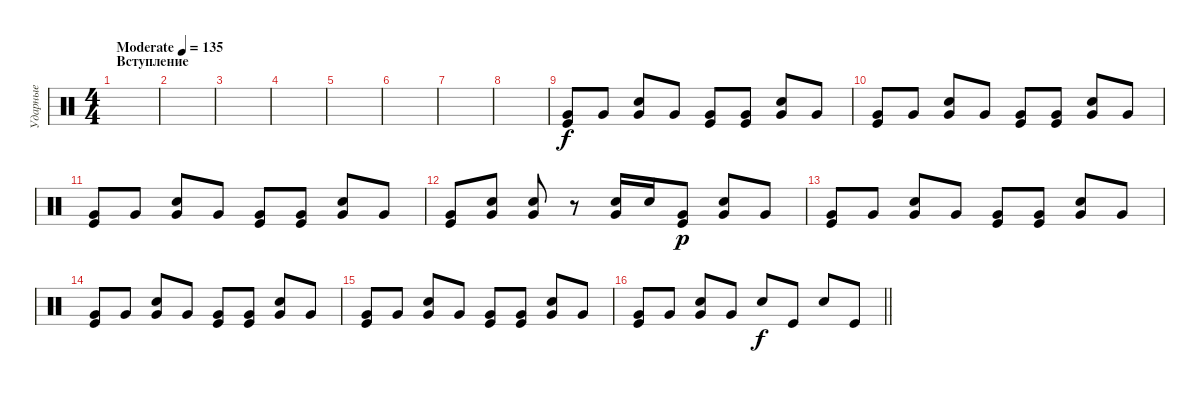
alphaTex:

\track ("Ударные" "Ударные") {instrument percussion}
\staff {score}
\articulation defaults
\ts (4 4)
\section ("" "Вступление")
\tempo (135 "Moderate")
\clef neutral
\ks c
|
|
|
|
|
|
|
|
("Kick (hit)" "Very Low Tom (hit)").8 "Very Low Tom (hit)".8 ("Electric Snare (hit)" "Very Low Tom (hit)").8 "Very Low Tom (hit)".8 ("Kick (hit)" "Very Low Tom (hit)").8 ("Kick (hit)" "Very Low Tom (hit)").8 ("Electric Snare (hit)" "Very Low Tom (hit)").8 "Very Low Tom (hit)".8 |
("Kick (hit)" "Very Low Tom (hit)").8 "Very Low Tom (hit)".8 ("Electric Snare (hit)" "Very Low Tom (hit)").8 "Very Low Tom (hit)".8 ("Kick (hit)" "Very Low Tom (hit)").8 ("Kick (hit)" "Very Low Tom (hit)").8 ("Electric Snare (hit)" "Very Low Tom (hit)").8 "Very Low Tom (hit)".8 |
("Kick (hit)" "Very Low Tom (hit)").8 "Very Low Tom (hit)".8 ("Electric Snare (hit)" "Very Low Tom (hit)").8 "Very Low Tom (hit)".8 ("Kick (hit)" "Very Low Tom (hit)").8 ("Kick (hit)" "Very Low Tom (hit)").8 ("Electric Snare (hit)" "Very Low Tom (hit)").8 "Very Low Tom (hit)".8 |
("Kick (hit)" "Very Low Tom (hit)").8 ("Electric Snare (hit)" "Very Low Tom (hit)").8 ("Electric Snare (hit)" "Very Low Tom (hit)").8 r.8 ("Electric Snare (hit)" "Very Low Tom (hit)").16 "Electric Snare (hit)".16{dy f} ("Kick (hit)" "Very Low Tom (hit)").8{dy p} ("Electric Snare (hit)" "Very Low Tom (hit)").8 "Very Low Tom (hit)".8 |
("Kick (hit)" "Very Low Tom (hit)").8 "Very Low Tom (hit)".8 ("Electric Snare (hit)" "Very Low Tom (hit)").8 "Very Low Tom (hit)".8 ("Kick (hit)" "Very Low Tom (hit)").8 ("Kick (hit)" "Very Low Tom (hit)").8 ("Electric Snare (hit)" "Very Low Tom (hit)").8 "Very Low Tom (hit)".8 |
("Kick (hit)" "Very Low Tom (hit)").8 "Very Low Tom (hit)".8 ("Electric Snare (hit)" "Very Low Tom (hit)").8 "Very Low Tom (hit)".8 ("Kick (hit)" "Very Low Tom (hit)").8 ("Kick (hit)" "Very Low Tom (hit)").8 ("Electric Snare (hit)" "Very Low Tom (hit)").8 "Very Low Tom (hit)".8 |
("Kick (hit)" "Very Low Tom (hit)").8 "Very Low Tom (hit)".8 ("Electric Snare (hit)" "Very Low Tom (hit)").8 "Very Low Tom (hit)".8 ("Kick (hit)" "Very Low Tom (hit)").8 ("Kick (hit)" "Very Low Tom (hit)").8 ("Electric Snare (hit)" "Very Low Tom (hit)").8 "Very Low Tom (hit)".8 |
\barLineRight lightlight
("Kick (hit)" "Very Low Tom (hit)").8 "Very Low Tom (hit)".8 ("Electric Snare (hit)" "Very Low Tom (hit)").8 "Very Low Tom (hit)".8 "Electric Snare (hit)".8{dy f} "Kick (hit)".8 "Electric Snare (hit)".8 "Kick (hit)".8
